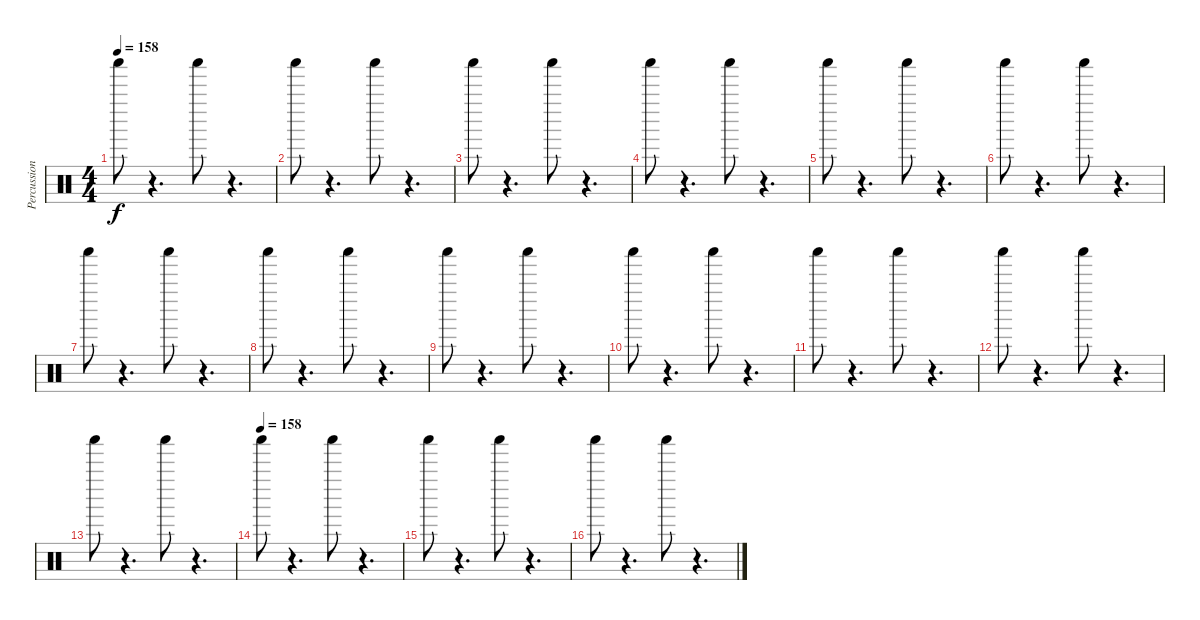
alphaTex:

\track ("Percussions" "Percussion") {instrument percussion}
\staff {score}
\articulation defaults
\ts (4 4)
\tempo 158
\clef neutral
\ks c "Shaker (hit)".8{dy f}
r.4{d} "Shaker (hit)".8 r.4{d} |
"Shaker (hit)".8 r.4{d} "Shaker (hit)".8 r.4{d} |
"Shaker (hit)".8 r.4{d} "Shaker (hit)".8 r.4{d} |
"Shaker (hit)".8 r.4{d} "Shaker (hit)".8 r.4{d} |
"Shaker (hit)".8 r.4{d} "Shaker (hit)".8 r.4{d} |
"Shaker (hit)".8 r.4{d} "Shaker (hit)".8 r.4{d} |
"Shaker (hit)".8 r.4{d} "Shaker (hit)".8 r.4{d} |
"Shaker (hit)".8 r.4{d} "Shaker (hit)".8 r.4{d} |
"Shaker (hit)".8 r.4{d} "Shaker (hit)".8 r.4{d} |
"Shaker (hit)".8 r.4{d} "Shaker (hit)".8 r.4{d} |
"Shaker (hit)".8 r.4{d} "Shaker (hit)".8 r.4{d} |
"Shaker (hit)".8 r.4{d} "Shaker (hit)".8 r.4{d} |
"Shaker (hit)".8 r.4{d} "Shaker (hit)".8 r.4{d} |
\tempo (158)
"Shaker (hit)".8 r.4{d} "Shaker (hit)".8 r.4{d} |
"Shaker (hit)".8 r.4{d} "Shaker (hit)".8 r.4{d} |
"Shaker (hit)".8 r.4{d} "Shaker (hit)".8 r.4{d}
